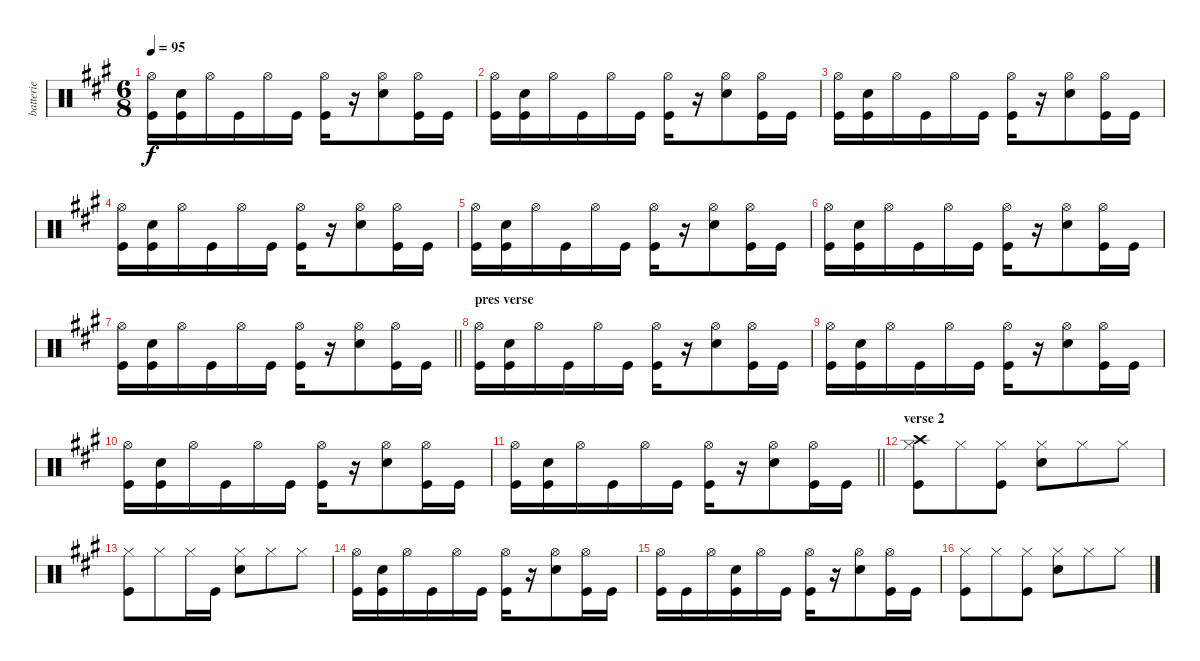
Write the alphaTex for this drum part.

\track ("batterie" "batterie") {instrument percussion}
\staff {score}
\articulation defaults
\ts (6 8)
\tempo 95
\clef neutral
\ks a
("Hi-Hat (open)" "Kick (hit)").16{dy f} ("Electric Snare (hit)" "Kick (hit)").16 "Hi-Hat (open)".16 "Kick (hit)".16 "Hi-Hat (open)".16 "Kick (hit)".16 ("Hi-Hat (open)" "Kick (hit)").16 r.16 ("Hi-Hat (open)" "Electric Snare (hit)").8 ("Hi-Hat (open)" "Kick (hit)").16 "Kick (hit)".16 |
("Hi-Hat (open)" "Kick (hit)").16 ("Electric Snare (hit)" "Kick (hit)").16 "Hi-Hat (open)".16 "Kick (hit)".16 "Hi-Hat (open)".16 "Kick (hit)".16 ("Hi-Hat (open)" "Kick (hit)").16 r.16 ("Hi-Hat (open)" "Electric Snare (hit)").8 ("Hi-Hat (open)" "Kick (hit)").16 "Kick (hit)".16 |
("Hi-Hat (open)" "Kick (hit)").16 ("Electric Snare (hit)" "Kick (hit)").16 "Hi-Hat (open)".16 "Kick (hit)".16 "Hi-Hat (open)".16 "Kick (hit)".16 ("Hi-Hat (open)" "Kick (hit)").16 r.16 ("Hi-Hat (open)" "Electric Snare (hit)").8 ("Hi-Hat (open)" "Kick (hit)").16 "Kick (hit)".16 |
("Hi-Hat (open)" "Kick (hit)").16 ("Electric Snare (hit)" "Kick (hit)").16 "Hi-Hat (open)".16 "Kick (hit)".16 "Hi-Hat (open)".16 "Kick (hit)".16 ("Hi-Hat (open)" "Kick (hit)").16 r.16 ("Hi-Hat (open)" "Electric Snare (hit)").8 ("Hi-Hat (open)" "Kick (hit)").16 "Kick (hit)".16 |
("Hi-Hat (open)" "Kick (hit)").16 ("Electric Snare (hit)" "Kick (hit)").16 "Hi-Hat (open)".16 "Kick (hit)".16 "Hi-Hat (open)".16 "Kick (hit)".16 ("Hi-Hat (open)" "Kick (hit)").16 r.16 ("Hi-Hat (open)" "Electric Snare (hit)").8 ("Hi-Hat (open)" "Kick (hit)").16 "Kick (hit)".16 |
("Hi-Hat (open)" "Kick (hit)").16 ("Electric Snare (hit)" "Kick (hit)").16 "Hi-Hat (open)".16 "Kick (hit)".16 "Hi-Hat (open)".16 "Kick (hit)".16 ("Hi-Hat (open)" "Kick (hit)").16 r.16 ("Hi-Hat (open)" "Electric Snare (hit)").8 ("Hi-Hat (open)" "Kick (hit)").16 "Kick (hit)".16 |
\barLineRight lightlight
("Hi-Hat (open)" "Kick (hit)").16 ("Electric Snare (hit)" "Kick (hit)").16 "Hi-Hat (open)".16 "Kick (hit)".16 "Hi-Hat (open)".16 "Kick (hit)".16 ("Hi-Hat (open)" "Kick (hit)").16 r.16 ("Hi-Hat (open)" "Electric Snare (hit)").8 ("Hi-Hat (open)" "Kick (hit)").16 "Kick (hit)".16 |
\section ("" "pres verse")
("Hi-Hat (open)" "Kick (hit)").16 ("Electric Snare (hit)" "Kick (hit)").16 "Hi-Hat (open)".16 "Kick (hit)".16 "Hi-Hat (open)".16 "Kick (hit)".16 ("Hi-Hat (open)" "Kick (hit)").16 r.16 ("Hi-Hat (open)" "Electric Snare (hit)").8 ("Hi-Hat (open)" "Kick (hit)").16 "Kick (hit)".16 |
("Hi-Hat (open)" "Kick (hit)").16 ("Electric Snare (hit)" "Kick (hit)").16 "Hi-Hat (open)".16 "Kick (hit)".16 "Hi-Hat (open)".16 "Kick (hit)".16 ("Hi-Hat (open)" "Kick (hit)").16 r.16 ("Hi-Hat (open)" "Electric Snare (hit)").8 ("Hi-Hat (open)" "Kick (hit)").16 "Kick (hit)".16 |
("Hi-Hat (open)" "Kick (hit)").16 ("Electric Snare (hit)" "Kick (hit)").16 "Hi-Hat (open)".16 "Kick (hit)".16 "Hi-Hat (open)".16 "Kick (hit)".16 ("Hi-Hat (open)" "Kick (hit)").16 r.16 ("Hi-Hat (open)" "Electric Snare (hit)").8 ("Hi-Hat (open)" "Kick (hit)").16 "Kick (hit)".16 |
\barLineRight lightlight
("Hi-Hat (open)" "Kick (hit)").16 ("Electric Snare (hit)" "Kick (hit)").16 "Hi-Hat (open)".16 "Kick (hit)".16 "Hi-Hat (open)".16 "Kick (hit)".16 ("Hi-Hat (open)" "Kick (hit)").16 r.16 ("Hi-Hat (open)" "Electric Snare (hit)").8 ("Hi-Hat (open)" "Kick (hit)").16 "Kick (hit)".16 |
\section ("" "verse 2")
("Crash high (hit)" "Hi-Hat (closed)" "Kick (hit)").8 "Hi-Hat (closed)".8 ("Hi-Hat (closed)" "Kick (hit)").8 ("Hi-Hat (closed)" "Electric Snare (hit)").8 "Hi-Hat (closed)".8 "Hi-Hat (closed)".8 |
("Hi-Hat (closed)" "Kick (hit)").8 "Hi-Hat (closed)".8 "Hi-Hat (closed)".16 "Kick (hit)".16 ("Electric Snare (hit)" "Hi-Hat (closed)").8 "Hi-Hat (closed)".8 "Hi-Hat (closed)".8 |
("Hi-Hat (open)" "Kick (hit)").16 ("Electric Snare (hit)" "Kick (hit)").16 "Hi-Hat (open)".16 "Kick (hit)".16 "Hi-Hat (open)".16 "Kick (hit)".16 ("Hi-Hat (open)" "Kick (hit)").16 r.16 ("Hi-Hat (open)" "Electric Snare (hit)").8 ("Hi-Hat (open)" "Kick (hit)").16 "Kick (hit)".16 |
("Hi-Hat (open)" "Kick (hit)").16 "Kick (hit)".16 "Hi-Hat (open)".16 ("Electric Snare (hit)" "Kick (hit)").16 "Hi-Hat (open)".16 "Kick (hit)".16 ("Hi-Hat (open)" "Kick (hit)").16 r.16 ("Hi-Hat (open)" "Electric Snare (hit)").8 ("Hi-Hat (open)" "Kick (hit)").16 "Kick (hit)".16 |
("Hi-Hat (closed)" "Kick (hit)").8 "Hi-Hat (closed)".8 ("Hi-Hat (closed)" "Kick (hit)").8 ("Hi-Hat (closed)" "Electric Snare (hit)").8 "Hi-Hat (closed)".8 "Hi-Hat (closed)".8
